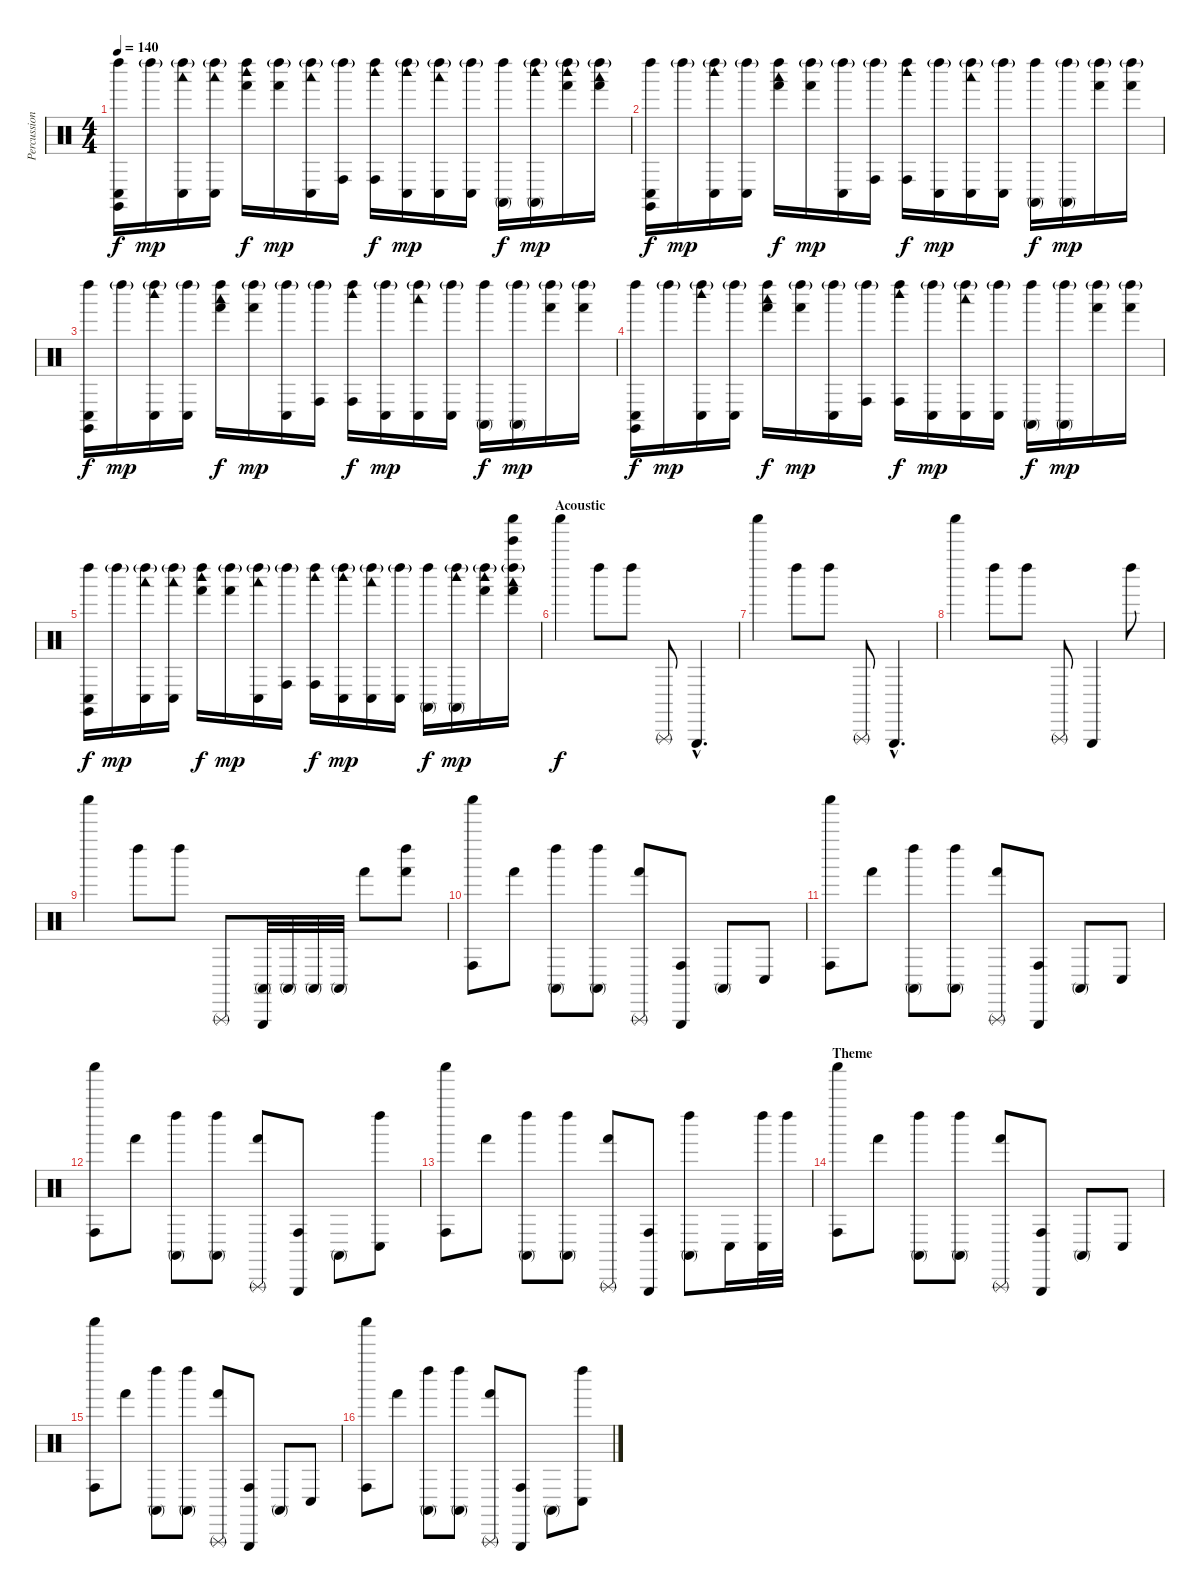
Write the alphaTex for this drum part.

\track ("Percussions" "Percussion") {instrument percussion}
\staff {score}
\articulation defaults
\ts (4 4)
\tempo 140
\clef neutral
\ks c
("Conga low (hit)" "Claves (hit)" "Left Maraca (hit)").16{dy f} "Left Maraca (hit)"{g}.16{dy mp} ("Conga low (hit)" "Woodblock low (hit)" "Left Maraca (hit)"{g}).16 ("Conga low (hit)" "Woodblock low (hit)" "Left Maraca (hit)"{g}).16 ("Hand (hit)" "Woodblock high (hit)" "Left Maraca (hit)").16{dy f} ("Hand (hit)" "Left Maraca (hit)"{g}).16{dy mp} ("Conga low (hit)" "Woodblock low (hit)" "Left Maraca (hit)"{g}).16 ("Conga high (hit)" "Left Maraca (hit)"{g}).16 ("Conga high (hit)" "Woodblock high (hit)" "Left Maraca (hit)").16{dy f} ("Conga low (hit)" "Woodblock high (hit)" "Left Maraca (hit)"{g}).16{dy mp} ("Conga low (hit)" "Woodblock low (hit)" "Left Maraca (hit)"{g}).16 ("Conga low (hit)" "Left Maraca (hit)"{g}).16 ("Conga high (mute)" "Left Maraca (hit)").16{dy f} ("Conga high (mute)" "Woodblock high (hit)" "Left Maraca (hit)"{g}).16{dy mp} ("Hand (hit)" "Woodblock high (hit)" "Left Maraca (hit)"{g}).16 ("Hand (hit)" "Woodblock low (hit)" "Left Maraca (hit)"{g}).16 |
("Conga low (hit)" "Claves (hit)" "Left Maraca (hit)").16{dy f} "Left Maraca (hit)"{g}.16{dy mp} ("Conga low (hit)" "Woodblock high (hit)" "Left Maraca (hit)"{g}).16 ("Conga low (hit)" "Left Maraca (hit)"{g}).16 ("Hand (hit)" "Woodblock low (hit)" "Left Maraca (hit)").16{dy f} ("Hand (hit)" "Left Maraca (hit)"{g}).16{dy mp} ("Conga low (hit)" "Left Maraca (hit)"{g}).16 ("Conga high (hit)" "Left Maraca (hit)"{g}).16 ("Conga high (hit)" "Woodblock high (hit)" "Left Maraca (hit)").16{dy f} ("Conga low (hit)" "Left Maraca (hit)"{g}).16{dy mp} ("Conga low (hit)" "Woodblock low (hit)" "Left Maraca (hit)"{g}).16 ("Conga low (hit)" "Left Maraca (hit)"{g}).16 ("Conga high (mute)" "Left Maraca (hit)").16{dy f} ("Conga high (mute)" "Left Maraca (hit)"{g}).16{dy mp} ("Hand (hit)" "Left Maraca (hit)"{g}).16 ("Hand (hit)" "Left Maraca (hit)"{g}).16 |
("Conga low (hit)" "Claves (hit)" "Left Maraca (hit)").16{dy f} "Left Maraca (hit)"{g}.16{dy mp} ("Conga low (hit)" "Woodblock high (hit)" "Left Maraca (hit)"{g}).16 ("Conga low (hit)" "Left Maraca (hit)"{g}).16 ("Hand (hit)" "Woodblock low (hit)" "Left Maraca (hit)").16{dy f} ("Hand (hit)" "Left Maraca (hit)"{g}).16{dy mp} ("Conga low (hit)" "Left Maraca (hit)"{g}).16 ("Conga high (hit)" "Left Maraca (hit)"{g}).16 ("Conga high (hit)" "Woodblock high (hit)" "Left Maraca (hit)").16{dy f} ("Conga low (hit)" "Left Maraca (hit)"{g}).16{dy mp} ("Conga low (hit)" "Woodblock low (hit)" "Left Maraca (hit)"{g}).16 ("Conga low (hit)" "Left Maraca (hit)"{g}).16 ("Conga high (mute)" "Left Maraca (hit)").16{dy f} ("Conga high (mute)" "Left Maraca (hit)"{g}).16{dy mp} ("Hand (hit)" "Left Maraca (hit)"{g}).16 ("Hand (hit)" "Left Maraca (hit)"{g}).16 |
("Conga low (hit)" "Claves (hit)" "Left Maraca (hit)").16{dy f} "Left Maraca (hit)"{g}.16{dy mp} ("Conga low (hit)" "Woodblock high (hit)" "Left Maraca (hit)"{g}).16 ("Conga low (hit)" "Left Maraca (hit)"{g}).16 ("Hand (hit)" "Woodblock low (hit)" "Left Maraca (hit)").16{dy f} ("Hand (hit)" "Left Maraca (hit)"{g}).16{dy mp} ("Conga low (hit)" "Left Maraca (hit)"{g}).16 ("Conga high (hit)" "Left Maraca (hit)"{g}).16 ("Conga high (hit)" "Woodblock high (hit)" "Left Maraca (hit)").16{dy f} ("Conga low (hit)" "Left Maraca (hit)"{g}).16{dy mp} ("Conga low (hit)" "Woodblock low (hit)" "Left Maraca (hit)"{g}).16 ("Conga low (hit)" "Left Maraca (hit)"{g}).16 ("Conga high (mute)" "Left Maraca (hit)").16{dy f} ("Conga high (mute)" "Left Maraca (hit)"{g}).16{dy mp} ("Hand (hit)" "Left Maraca (hit)"{g}).16 ("Hand (hit)" "Left Maraca (hit)"{g}).16 |
("Conga low (hit)" "Claves (hit)" "Left Maraca (hit)").16{dy f} "Left Maraca (hit)"{g}.16{dy mp} ("Conga low (hit)" "Woodblock low (hit)" "Left Maraca (hit)"{g}).16 ("Conga low (hit)" "Woodblock low (hit)" "Left Maraca (hit)"{g}).16 ("Hand (hit)" "Woodblock high (hit)" "Left Maraca (hit)").16{dy f} ("Hand (hit)" "Left Maraca (hit)"{g}).16{dy mp} ("Conga low (hit)" "Woodblock low (hit)" "Left Maraca (hit)"{g}).16 ("Conga high (hit)" "Left Maraca (hit)"{g}).16 ("Conga high (hit)" "Woodblock high (hit)" "Left Maraca (hit)").16{dy f} ("Conga low (hit)" "Woodblock high (hit)" "Left Maraca (hit)"{g}).16{dy mp} ("Conga low (hit)" "Woodblock low (hit)" "Left Maraca (hit)"{g}).16 ("Conga low (hit)" "Left Maraca (hit)"{g}).16 ("Conga high (mute)" "Left Maraca (hit)").16{dy f} ("Conga high (mute)" "Woodblock high (hit)" "Left Maraca (hit)"{g}).16{dy mp} ("Hand (hit)" "Woodblock high (hit)" "Left Maraca (hit)"{g}).16 ("Hand (hit)" "Woodblock low (hit)" "Bell Tree (hit)" "Shaker (hit)" "Left Maraca (hit)"{g}).16 |
\section ("" "Acoustic")
"Shaker (hit)".4{dy f} "Left Maraca (hit)".8 "Left Maraca (hit)".8 "Triangle (rnute)".8 "Triangle (hit)"{hac}.4{d} |
"Shaker (hit)".4 "Left Maraca (hit)".8 "Left Maraca (hit)".8 "Triangle (rnute)".8 "Triangle (hit)"{hac}.4{d} |
"Shaker (hit)".4 "Left Maraca (hit)".8 "Left Maraca (hit)".8 "Triangle (rnute)".8 "Triangle (hit)".4 "Left Maraca (hit)".8 |
"Shaker (hit)".4 "Left Maraca (hit)".8 "Left Maraca (hit)".8 "Triangle (rnute)".8 ("Conga high (mute)" "Triangle (hit)").32 "Conga high (mute)".32 "Conga high (mute)".32 "Conga high (mute)".32 "Hand (hit)".8 ("Hand (hit)" "Left Maraca (hit)").8 |
("Conga high (hit)" "Shaker (hit)").8 "Hand (hit)".8 ("Conga high (mute)" "Left Maraca (hit)").8 ("Conga high (mute)" "Left Maraca (hit)").8 ("Hand (hit)" "Triangle (rnute)").8 ("Conga high (hit)" "Triangle (hit)").8 "Conga high (mute)".8 "Conga low (hit)".8 |
("Conga high (hit)" "Shaker (hit)").8 "Hand (hit)".8 ("Conga high (mute)" "Left Maraca (hit)").8 ("Conga high (mute)" "Left Maraca (hit)").8 ("Hand (hit)" "Triangle (rnute)").8 ("Conga high (hit)" "Triangle (hit)").8 "Conga high (mute)".8 "Conga low (hit)".8 |
("Conga high (hit)" "Shaker (hit)").8 "Hand (hit)".8 ("Conga high (mute)" "Left Maraca (hit)").8 ("Conga high (mute)" "Left Maraca (hit)").8 ("Hand (hit)" "Triangle (rnute)").8 ("Conga high (hit)" "Triangle (hit)").8 "Conga high (mute)".8 ("Conga low (hit)" "Left Maraca (hit)").8 |
("Conga high (hit)" "Shaker (hit)").8 "Hand (hit)".8 ("Conga high (mute)" "Left Maraca (hit)").8 ("Conga high (mute)" "Left Maraca (hit)").8 ("Hand (hit)" "Triangle (rnute)").8 ("Conga high (hit)" "Triangle (hit)").8 ("Conga high (mute)" "Left Maraca (hit)").8 "Conga low (hit)".16 ("Conga low (hit)" "Left Maraca (hit)").32 "Left Maraca (hit)".32 |
\section ("" "Theme")
("Conga high (hit)" "Shaker (hit)").8 "Hand (hit)".8 ("Conga high (mute)" "Left Maraca (hit)").8 ("Conga high (mute)" "Left Maraca (hit)").8 ("Hand (hit)" "Triangle (rnute)").8 ("Conga high (hit)" "Triangle (hit)").8 "Conga high (mute)".8 "Conga low (hit)".8 |
("Conga high (hit)" "Shaker (hit)").8 "Hand (hit)".8 ("Conga high (mute)" "Left Maraca (hit)").8 ("Conga high (mute)" "Left Maraca (hit)").8 ("Hand (hit)" "Triangle (rnute)").8 ("Conga high (hit)" "Triangle (hit)").8 "Conga high (mute)".8 "Conga low (hit)".8 |
("Conga high (hit)" "Shaker (hit)").8 "Hand (hit)".8 ("Conga high (mute)" "Left Maraca (hit)").8 ("Conga high (mute)" "Left Maraca (hit)").8 ("Hand (hit)" "Triangle (rnute)").8 ("Conga high (hit)" "Triangle (hit)").8 "Conga high (mute)".8 ("Conga low (hit)" "Left Maraca (hit)").8
